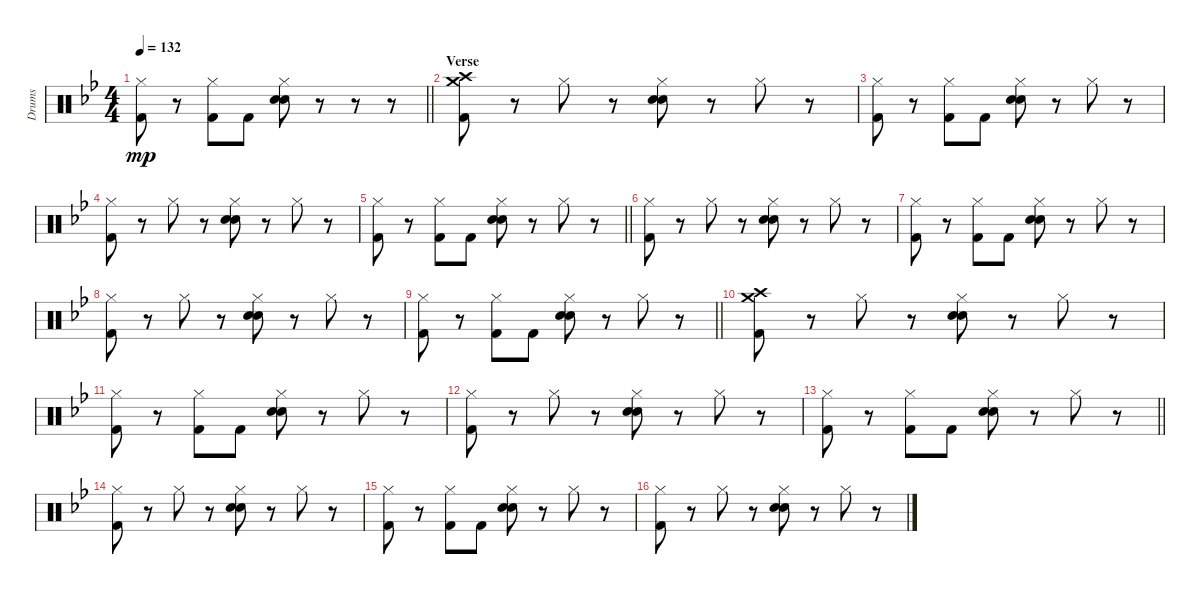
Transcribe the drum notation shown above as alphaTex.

\track ("Drums" "Drums") {instrument percussion}
\staff
\articulation defaults
\ts (4 4)
\tempo 132
\clef neutral
\barLineRight lightlight
\ks bb
("Hi-Hat (closed)" "Kick (hit) 2").8{dy mp} r.8 ("Hi-Hat (closed)" "Kick (hit) 2").8 "Kick (hit) 2".8 ("Hi-Hat (closed)" "Electric Snare (hit)" "Electric Snare (hit)").8 r.8 r.8 r.8 |
\section ("" "Verse")
("Crash high (hit)" "Crash medium (hit)" "Kick (hit) 2").8 r.8 "Hi-Hat (closed)".8 r.8 ("Hi-Hat (closed)" "Electric Snare (hit)" "Electric Snare (hit)").8 r.8 "Hi-Hat (closed)".8 r.8 |
("Hi-Hat (closed)" "Kick (hit) 2").8 r.8 ("Hi-Hat (closed)" "Kick (hit) 2").8 "Kick (hit) 2".8 ("Hi-Hat (closed)" "Electric Snare (hit)" "Electric Snare (hit)").8 r.8 "Hi-Hat (closed)".8 r.8 |
("Hi-Hat (closed)" "Kick (hit) 2").8 r.8 "Hi-Hat (closed)".8 r.8 ("Hi-Hat (closed)" "Electric Snare (hit)" "Electric Snare (hit)").8 r.8 "Hi-Hat (closed)".8 r.8 |
\barLineRight lightlight
("Hi-Hat (closed)" "Kick (hit) 2").8 r.8 ("Hi-Hat (closed)" "Kick (hit) 2").8 "Kick (hit) 2".8 ("Hi-Hat (closed)" "Electric Snare (hit)" "Electric Snare (hit)").8 r.8 "Hi-Hat (closed)".8 r.8 |
("Hi-Hat (closed)" "Kick (hit) 2").8 r.8 "Hi-Hat (closed)".8 r.8 ("Hi-Hat (closed)" "Electric Snare (hit)" "Electric Snare (hit)").8 r.8 "Hi-Hat (closed)".8 r.8 |
("Hi-Hat (closed)" "Kick (hit) 2").8 r.8 ("Hi-Hat (closed)" "Kick (hit) 2").8 "Kick (hit) 2".8 ("Hi-Hat (closed)" "Electric Snare (hit)" "Electric Snare (hit)").8 r.8 "Hi-Hat (closed)".8 r.8 |
("Hi-Hat (closed)" "Kick (hit) 2").8 r.8 "Hi-Hat (closed)".8 r.8 ("Hi-Hat (closed)" "Electric Snare (hit)" "Electric Snare (hit)").8 r.8 "Hi-Hat (closed)".8 r.8 |
\barLineRight lightlight
("Hi-Hat (closed)" "Kick (hit) 2").8 r.8 ("Hi-Hat (closed)" "Kick (hit) 2").8 "Kick (hit) 2".8 ("Hi-Hat (closed)" "Electric Snare (hit)" "Electric Snare (hit)").8 r.8 "Hi-Hat (closed)".8 r.8 |
("Crash high (hit)" "Crash medium (hit)" "Kick (hit) 2").8 r.8 "Hi-Hat (closed)".8 r.8 ("Hi-Hat (closed)" "Electric Snare (hit)" "Electric Snare (hit)").8 r.8 "Hi-Hat (closed)".8 r.8 |
("Hi-Hat (closed)" "Kick (hit) 2").8 r.8 ("Hi-Hat (closed)" "Kick (hit) 2").8 "Kick (hit) 2".8 ("Hi-Hat (closed)" "Electric Snare (hit)" "Electric Snare (hit)").8 r.8 "Hi-Hat (closed)".8 r.8 |
("Hi-Hat (closed)" "Kick (hit) 2").8 r.8 "Hi-Hat (closed)".8 r.8 ("Hi-Hat (closed)" "Electric Snare (hit)" "Electric Snare (hit)").8 r.8 "Hi-Hat (closed)".8 r.8 |
\barLineRight lightlight
("Hi-Hat (closed)" "Kick (hit) 2").8 r.8 ("Hi-Hat (closed)" "Kick (hit) 2").8 "Kick (hit) 2".8 ("Hi-Hat (closed)" "Electric Snare (hit)" "Electric Snare (hit)").8 r.8 "Hi-Hat (closed)".8 r.8 |
("Hi-Hat (closed)" "Kick (hit) 2").8 r.8 "Hi-Hat (closed)".8 r.8 ("Hi-Hat (closed)" "Electric Snare (hit)" "Electric Snare (hit)").8 r.8 "Hi-Hat (closed)".8 r.8 |
("Hi-Hat (closed)" "Kick (hit) 2").8 r.8 ("Hi-Hat (closed)" "Kick (hit) 2").8 "Kick (hit) 2".8 ("Hi-Hat (closed)" "Electric Snare (hit)" "Electric Snare (hit)").8 r.8 "Hi-Hat (closed)".8 r.8 |
("Hi-Hat (closed)" "Kick (hit) 2").8 r.8 "Hi-Hat (closed)".8 r.8 ("Hi-Hat (closed)" "Electric Snare (hit)" "Electric Snare (hit)").8 r.8 "Hi-Hat (closed)".8 r.8
